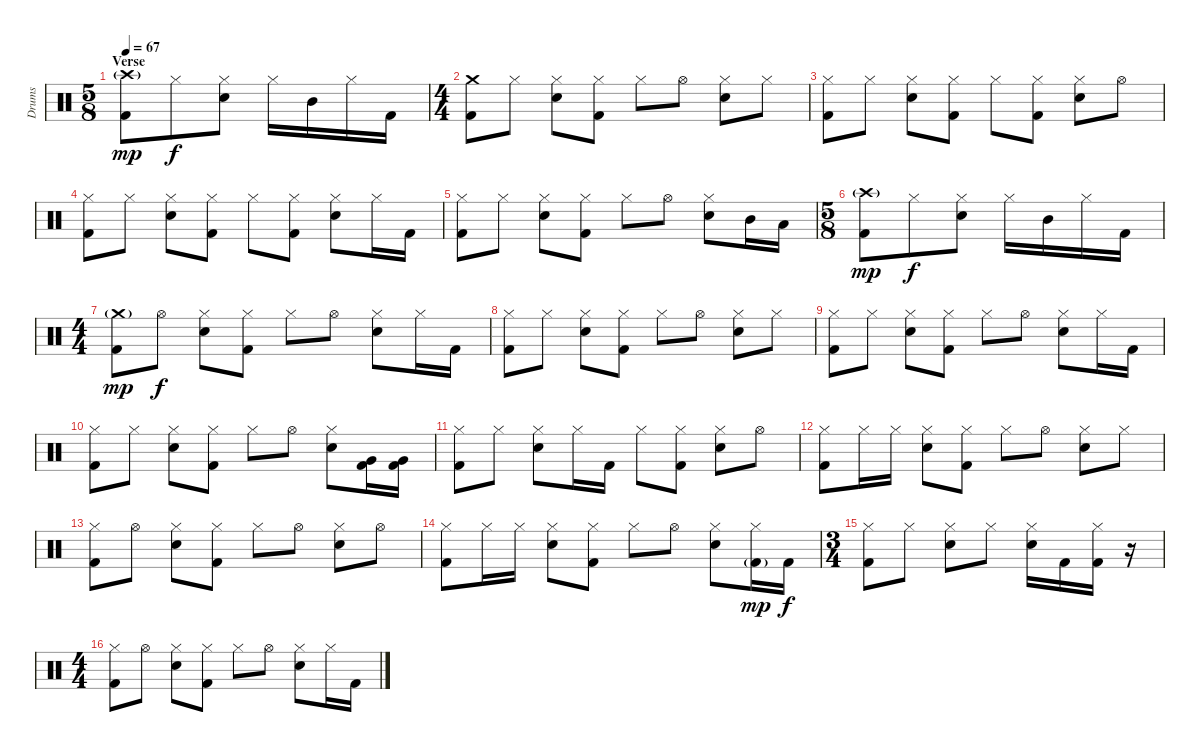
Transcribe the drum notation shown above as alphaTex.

\track ("Drums" "Drums") {instrument percussion}
\staff {score}
\articulation defaults
\ts (5 8)
\section ("" "Verse")
\tempo 67
\clef neutral
\ks c
("Crash high (hit)"{g} "Kick (hit) 2").8{dy mp} "Hi-Hat (closed)".8{dy f} ("Hi-Hat (closed)" "Snare (hit) 2").8 "Hi-Hat (closed)".16 "Mid Tom (hit)".16 "Hi-Hat (closed)".16 "Kick (hit) 2".16 |
\ts (4 4)
("Crash medium (hit)" "Kick (hit) 2").8 "Hi-Hat (closed)".8 ("Hi-Hat (closed)" "Snare (hit) 2").8 ("Hi-Hat (closed)" "Kick (hit) 2").8 "Hi-Hat (closed)".8 "Hi-Hat (open)".8 ("Hi-Hat (closed)" "Snare (hit) 2").8 "Hi-Hat (closed)".8 |
("Hi-Hat (closed)" "Kick (hit) 2").8 "Hi-Hat (closed)".8 ("Hi-Hat (closed)" "Snare (hit) 2").8 ("Hi-Hat (closed)" "Kick (hit) 2").8 "Hi-Hat (closed)".8 ("Hi-Hat (closed)" "Kick (hit) 2").8 ("Hi-Hat (closed)" "Snare (hit) 2").8 "Hi-Hat (open)".8 |
("Hi-Hat (closed)" "Kick (hit) 2").8 "Hi-Hat (closed)".8 ("Hi-Hat (closed)" "Snare (hit) 2").8 ("Hi-Hat (closed)" "Kick (hit) 2").8 "Hi-Hat (closed)".8 ("Hi-Hat (closed)" "Kick (hit) 2").8 ("Hi-Hat (closed)" "Snare (hit) 2").8 "Hi-Hat (closed)".16 "Kick (hit) 2".16 |
("Hi-Hat (closed)" "Kick (hit) 2").8 "Hi-Hat (closed)".8 ("Hi-Hat (closed)" "Snare (hit) 2").8 ("Hi-Hat (closed)" "Kick (hit) 2").8 "Hi-Hat (closed)".8 "Hi-Hat (open)".8 ("Hi-Hat (closed)" "Snare (hit) 2").8 "Mid Tom (hit)".16 "Low Tom (hit)".16 |
\ts (5 8)
("Crash high (hit)"{g} "Kick (hit) 2").8{dy mp} "Hi-Hat (closed)".8{dy f} ("Hi-Hat (closed)" "Snare (hit) 2").8 "Hi-Hat (closed)".16 "Mid Tom (hit)".16 "Hi-Hat (closed)".16 "Kick (hit) 2".16 |
\ts (4 4)
("Crash medium (hit)"{g} "Kick (hit) 2").8{dy mp} "Hi-Hat (open)".8{dy f} ("Hi-Hat (closed)" "Snare (hit) 2").8 ("Hi-Hat (closed)" "Kick (hit) 2").8 "Hi-Hat (closed)".8 "Hi-Hat (open)".8 ("Hi-Hat (closed)" "Snare (hit) 2").8 "Hi-Hat (closed)".16 "Kick (hit) 2".16 |
("Hi-Hat (closed)" "Kick (hit) 2").8 "Hi-Hat (closed)".8 ("Hi-Hat (closed)" "Snare (hit) 2").8 ("Hi-Hat (closed)" "Kick (hit) 2").8 "Hi-Hat (closed)".8 "Hi-Hat (open)".8 ("Hi-Hat (closed)" "Snare (hit) 2").8 "Hi-Hat (closed)".8 |
("Hi-Hat (closed)" "Kick (hit) 2").8 "Hi-Hat (closed)".8 ("Hi-Hat (closed)" "Snare (hit) 2").8 ("Hi-Hat (closed)" "Kick (hit) 2").8 "Hi-Hat (closed)".8 "Hi-Hat (open)".8 ("Hi-Hat (closed)" "Snare (hit) 2").8 "Hi-Hat (closed)".16 "Kick (hit) 2".16 |
("Hi-Hat (closed)" "Kick (hit) 2").8 "Hi-Hat (closed)".8 ("Hi-Hat (closed)" "Snare (hit) 2").8 ("Hi-Hat (closed)" "Kick (hit) 2").8 "Hi-Hat (closed)".8 "Hi-Hat (open)".8 ("Hi-Hat (closed)" "Snare (hit) 2").8 ("Very Low Tom (hit)" "Kick (hit) 2").16 ("Very Low Tom (hit)" "Kick (hit) 2").16 |
("Hi-Hat (closed)" "Kick (hit) 2").8 "Hi-Hat (closed)".8 ("Hi-Hat (closed)" "Snare (hit) 2").8 "Hi-Hat (closed)".16 "Kick (hit) 2".16 "Hi-Hat (closed)".8 ("Hi-Hat (closed)" "Kick (hit) 2").8 ("Hi-Hat (closed)" "Snare (hit) 2").8 "Hi-Hat (open)".8 |
("Hi-Hat (closed)" "Kick (hit) 2").8 "Hi-Hat (closed)".16 "Hi-Hat (closed)".16 ("Hi-Hat (closed)" "Snare (hit) 2").8 ("Hi-Hat (closed)" "Kick (hit) 2").8 "Hi-Hat (closed)".8 "Hi-Hat (open)".8 ("Hi-Hat (closed)" "Snare (hit) 2").8 "Hi-Hat (closed)".8 |
("Hi-Hat (closed)" "Kick (hit) 2").8 "Hi-Hat (open)".8 ("Hi-Hat (closed)" "Snare (hit) 2").8 ("Hi-Hat (closed)" "Kick (hit) 2").8 "Hi-Hat (closed)".8 "Hi-Hat (open)".8 ("Hi-Hat (closed)" "Snare (hit) 2").8 "Hi-Hat (open)".8 |
("Hi-Hat (closed)" "Kick (hit) 2").8 "Hi-Hat (closed)".16 "Hi-Hat (closed)".16 ("Hi-Hat (closed)" "Snare (hit) 2").8 ("Hi-Hat (closed)" "Kick (hit) 2").8 "Hi-Hat (closed)".8 "Hi-Hat (open)".8 ("Hi-Hat (closed)" "Snare (hit) 2").8 ("Hi-Hat (closed)" "Kick (hit) 2"{g}).16{dy mp} "Kick (hit) 2".16{dy f} |
\ts (3 4)
("Hi-Hat (closed)" "Kick (hit) 2").8 "Hi-Hat (closed)".8 ("Hi-Hat (closed)" "Snare (hit) 2").8 "Hi-Hat (closed)".8 ("Hi-Hat (closed)" "Snare (hit) 2").16 "Kick (hit) 2".16 ("Hi-Hat (closed)" "Kick (hit) 2").16 r.16 |
\ts (4 4)
("Hi-Hat (closed)" "Kick (hit) 2").8 "Hi-Hat (open)".8 ("Hi-Hat (closed)" "Snare (hit) 2").8 ("Hi-Hat (closed)" "Kick (hit) 2").8 "Hi-Hat (closed)".8 "Hi-Hat (open)".8 ("Hi-Hat (closed)" "Snare (hit) 2").8 "Hi-Hat (closed)".16 "Kick (hit) 2".16
